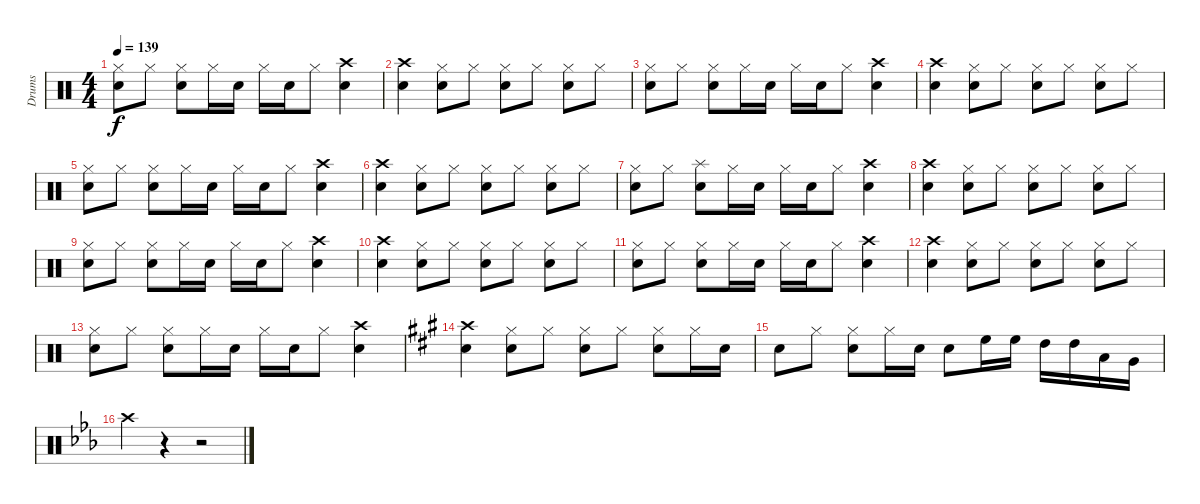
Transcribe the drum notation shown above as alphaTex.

\track ("Drums" "Drums") {instrument percussion}
\staff {score}
\articulation defaults
\ts (4 4)
\tempo 139
\clef neutral
\ks c
("Hi-Hat (closed)" "Snare (hit) 2").8{dy f} "Hi-Hat (closed)".8 ("Hi-Hat (closed)" "Snare (hit) 2").8 "Hi-Hat (closed)".16 "Snare (hit) 2".16 "Hi-Hat (closed)".16 "Snare (hit) 2".16 "Hi-Hat (closed)".8 ("Crash high (hit)" "Snare (hit) 2").4 |
("Crash high (hit)" "Snare (hit) 2").4 ("Hi-Hat (closed)" "Snare (hit) 2").8 "Hi-Hat (closed)".8 ("Hi-Hat (closed)" "Snare (hit) 2").8 "Hi-Hat (closed)".8 ("Hi-Hat (closed)" "Snare (hit) 2").8 "Hi-Hat (closed)".8 |
("Hi-Hat (closed)" "Snare (hit) 2").8 "Hi-Hat (closed)".8 ("Hi-Hat (closed)" "Snare (hit) 2").8 "Hi-Hat (closed)".16 "Snare (hit) 2".16 "Hi-Hat (closed)".16 "Snare (hit) 2".16 "Hi-Hat (closed)".8 ("Crash high (hit)" "Snare (hit) 2").4 |
("Crash high (hit)" "Snare (hit) 2").4 ("Hi-Hat (closed)" "Snare (hit) 2").8 "Hi-Hat (closed)".8 ("Hi-Hat (closed)" "Snare (hit) 2").8 "Hi-Hat (closed)".8 ("Hi-Hat (closed)" "Snare (hit) 2").8 "Hi-Hat (closed)".8 |
("Hi-Hat (closed)" "Snare (hit) 2").8 "Hi-Hat (closed)".8 ("Hi-Hat (closed)" "Snare (hit) 2").8 "Hi-Hat (closed)".16 "Snare (hit) 2".16 "Hi-Hat (closed)".16 "Snare (hit) 2".16 "Hi-Hat (closed)".8 ("Crash high (hit)" "Snare (hit) 2").4 |
("Crash high (hit)" "Snare (hit) 2").4 ("Hi-Hat (closed)" "Snare (hit) 2").8 "Hi-Hat (closed)".8 ("Hi-Hat (closed)" "Snare (hit) 2").8 "Hi-Hat (closed)".8 ("Hi-Hat (closed)" "Snare (hit) 2").8 "Hi-Hat (closed)".8 |
("Hi-Hat (closed)" "Snare (hit) 2").8 "Hi-Hat (closed)".8 ("Splash (hit)" "Snare (hit) 2").8 "Hi-Hat (closed)".16 "Snare (hit) 2".16 "Hi-Hat (closed)".16 "Snare (hit) 2".16 "Hi-Hat (closed)".8 ("Crash high (hit)" "Snare (hit) 2").4 |
("Crash high (hit)" "Snare (hit) 2").4 ("Hi-Hat (closed)" "Snare (hit) 2").8 "Hi-Hat (closed)".8 ("Hi-Hat (closed)" "Snare (hit) 2").8 "Hi-Hat (closed)".8 ("Hi-Hat (closed)" "Snare (hit) 2").8 "Hi-Hat (closed)".8 |
("Hi-Hat (closed)" "Snare (hit) 2").8 "Hi-Hat (closed)".8 ("Hi-Hat (closed)" "Snare (hit) 2").8 "Hi-Hat (closed)".16 "Snare (hit) 2".16 "Hi-Hat (closed)".16 "Snare (hit) 2".16 "Hi-Hat (closed)".8 ("Crash high (hit)" "Snare (hit) 2").4 |
("Crash high (hit)" "Snare (hit) 2").4 ("Hi-Hat (closed)" "Snare (hit) 2").8 "Hi-Hat (closed)".8 ("Hi-Hat (closed)" "Snare (hit) 2").8 "Hi-Hat (closed)".8 ("Hi-Hat (closed)" "Snare (hit) 2").8 "Hi-Hat (closed)".8 |
("Hi-Hat (closed)" "Snare (hit) 2").8 "Hi-Hat (closed)".8 ("Hi-Hat (closed)" "Snare (hit) 2").8 "Hi-Hat (closed)".16 "Snare (hit) 2".16 "Hi-Hat (closed)".16 "Snare (hit) 2".16 "Hi-Hat (closed)".8 ("Crash high (hit)" "Snare (hit) 2").4 |
("Crash high (hit)" "Snare (hit) 2").4 ("Hi-Hat (closed)" "Snare (hit) 2").8 "Hi-Hat (closed)".8 ("Hi-Hat (closed)" "Snare (hit) 2").8 "Hi-Hat (closed)".8 ("Hi-Hat (closed)" "Snare (hit) 2").8 "Hi-Hat (closed)".8 |
("Hi-Hat (closed)" "Snare (hit) 2").8 "Hi-Hat (closed)".8 ("Hi-Hat (closed)" "Snare (hit) 2").8 "Hi-Hat (closed)".16 "Snare (hit) 2".16 "Hi-Hat (closed)".16 "Snare (hit) 2".16 "Hi-Hat (closed)".8 ("Crash high (hit)" "Snare (hit) 2").4 |
\ks a
("Crash high (hit)" "Snare (hit) 2").4 ("Hi-Hat (closed)" "Snare (hit) 2").8 "Hi-Hat (closed)".8 ("Hi-Hat (closed)" "Snare (hit) 2").8 "Hi-Hat (closed)".8 ("Hi-Hat (closed)" "Snare (hit) 2").8 "Hi-Hat (closed)".16 "Snare (hit) 2".16 |
"Snare (hit) 2".8 "Hi-Hat (closed)".8 ("Hi-Hat (closed)" "Snare (hit) 2").8 "Hi-Hat (closed)".16 "Snare (hit) 2".16 "Snare (hit) 2".8 "High Floor Tom (hit)".16 "High Floor Tom (hit)".16 "High Tom (hit)".16 "High Tom (hit)".16 "Low Tom (hit)".16 "Very Low Tom (hit)".16 |
\ks eb "Crash high (hit)".4
r.4 r.2
